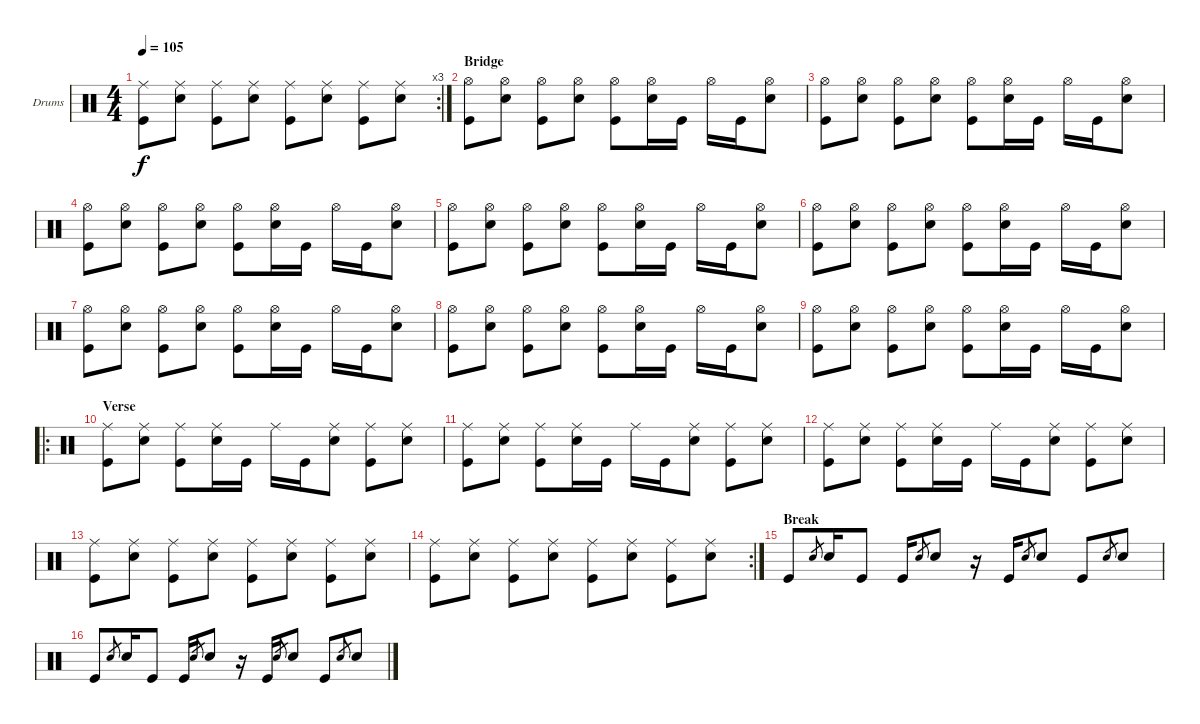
\bracketExtendMode groupsimilarinstruments
\firstSystemTrackNameOrientation horizontal
\otherSystemsTrackNameOrientation horizontal
\track ("Fabrizio" "Drums") {instrument percussion}
\staff {score}
\articulation defaults
\rc 3
\ts (4 4)
\tempo 105
\clef neutral
\ks c
("Ride (middle)" "Kick (hit)").8{dy f} ("Ride (middle)" "Snare (hit) 2").8 ("Ride (middle)" "Kick (hit)").8 ("Ride (middle)" "Snare (hit) 2").8 ("Ride (middle)" "Kick (hit)").8 ("Ride (middle)" "Snare (hit) 2").8 ("Ride (middle)" "Kick (hit)").8 ("Ride (middle)" "Snare (hit) 2").8 |
\section ("" "Bridge")
("Kick (hit)" "Hi-Hat (open)").8 ("Snare (hit) 2" "Hi-Hat (open)").8 ("Kick (hit)" "Hi-Hat (open)").8 ("Snare (hit) 2" "Hi-Hat (open)").8 ("Kick (hit)" "Hi-Hat (open)").8 ("Snare (hit) 2" "Hi-Hat (open)").16 "Kick (hit)".16 "Hi-Hat (open)".16 "Kick (hit)".16 ("Snare (hit) 2" "Hi-Hat (open)").8 |
("Kick (hit)" "Hi-Hat (open)").8 ("Snare (hit) 2" "Hi-Hat (open)").8 ("Kick (hit)" "Hi-Hat (open)").8 ("Snare (hit) 2" "Hi-Hat (open)").8 ("Kick (hit)" "Hi-Hat (open)").8 ("Snare (hit) 2" "Hi-Hat (open)").16 "Kick (hit)".16 "Hi-Hat (open)".16 "Kick (hit)".16 ("Snare (hit) 2" "Hi-Hat (open)").8 |
("Kick (hit)" "Hi-Hat (open)").8 ("Snare (hit) 2" "Hi-Hat (open)").8 ("Kick (hit)" "Hi-Hat (open)").8 ("Snare (hit) 2" "Hi-Hat (open)").8 ("Kick (hit)" "Hi-Hat (open)").8 ("Snare (hit) 2" "Hi-Hat (open)").16 "Kick (hit)".16 "Hi-Hat (open)".16 "Kick (hit)".16 ("Snare (hit) 2" "Hi-Hat (open)").8 |
("Kick (hit)" "Hi-Hat (open)").8 ("Snare (hit) 2" "Hi-Hat (open)").8 ("Kick (hit)" "Hi-Hat (open)").8 ("Snare (hit) 2" "Hi-Hat (open)").8 ("Kick (hit)" "Hi-Hat (open)").8 ("Snare (hit) 2" "Hi-Hat (open)").16 "Kick (hit)".16 "Hi-Hat (open)".16 "Kick (hit)".16 ("Snare (hit) 2" "Hi-Hat (open)").8 |
("Kick (hit)" "Hi-Hat (open)").8 ("Snare (hit) 2" "Hi-Hat (open)").8 ("Kick (hit)" "Hi-Hat (open)").8 ("Snare (hit) 2" "Hi-Hat (open)").8 ("Kick (hit)" "Hi-Hat (open)").8 ("Snare (hit) 2" "Hi-Hat (open)").16 "Kick (hit)".16 "Hi-Hat (open)".16 "Kick (hit)".16 ("Snare (hit) 2" "Hi-Hat (open)").8 |
("Kick (hit)" "Hi-Hat (open)").8 ("Snare (hit) 2" "Hi-Hat (open)").8 ("Kick (hit)" "Hi-Hat (open)").8 ("Snare (hit) 2" "Hi-Hat (open)").8 ("Kick (hit)" "Hi-Hat (open)").8 ("Snare (hit) 2" "Hi-Hat (open)").16 "Kick (hit)".16 "Hi-Hat (open)".16 "Kick (hit)".16 ("Snare (hit) 2" "Hi-Hat (open)").8 |
("Kick (hit)" "Hi-Hat (open)").8 ("Snare (hit) 2" "Hi-Hat (open)").8 ("Kick (hit)" "Hi-Hat (open)").8 ("Snare (hit) 2" "Hi-Hat (open)").8 ("Kick (hit)" "Hi-Hat (open)").8 ("Snare (hit) 2" "Hi-Hat (open)").16 "Kick (hit)".16 "Hi-Hat (open)".16 "Kick (hit)".16 ("Snare (hit) 2" "Hi-Hat (open)").8 |
("Kick (hit)" "Hi-Hat (open)").8 ("Snare (hit) 2" "Hi-Hat (open)").8 ("Kick (hit)" "Hi-Hat (open)").8 ("Snare (hit) 2" "Hi-Hat (open)").8 ("Kick (hit)" "Hi-Hat (open)").8 ("Snare (hit) 2" "Hi-Hat (open)").16 "Kick (hit)".16 "Hi-Hat (open)".16 "Kick (hit)".16 ("Snare (hit) 2" "Hi-Hat (open)").8 |
\ro
\section ("" "Verse")
("Ride (middle)" "Kick (hit)").8 ("Ride (middle)" "Snare (hit) 2").8 ("Ride (middle)" "Kick (hit)").8 ("Ride (middle)" "Snare (hit) 2").16 "Kick (hit)".16 "Ride (middle)".16 "Kick (hit)".16 ("Ride (middle)" "Snare (hit) 2").8 ("Ride (middle)" "Kick (hit)").8 ("Ride (middle)" "Snare (hit) 2").8 |
("Ride (middle)" "Kick (hit)").8 ("Ride (middle)" "Snare (hit) 2").8 ("Ride (middle)" "Kick (hit)").8 ("Ride (middle)" "Snare (hit) 2").16 "Kick (hit)".16 "Ride (middle)".16 "Kick (hit)".16 ("Ride (middle)" "Snare (hit) 2").8 ("Ride (middle)" "Kick (hit)").8 ("Ride (middle)" "Snare (hit) 2").8 |
("Ride (middle)" "Kick (hit)").8 ("Ride (middle)" "Snare (hit) 2").8 ("Ride (middle)" "Kick (hit)").8 ("Ride (middle)" "Snare (hit) 2").16 "Kick (hit)".16 "Ride (middle)".16 "Kick (hit)".16 ("Ride (middle)" "Snare (hit) 2").8 ("Ride (middle)" "Kick (hit)").8 ("Ride (middle)" "Snare (hit) 2").8 |
("Ride (middle)" "Kick (hit)").8 ("Ride (middle)" "Snare (hit) 2").8 ("Ride (middle)" "Kick (hit)").8 ("Ride (middle)" "Snare (hit) 2").8 ("Ride (middle)" "Kick (hit)").8 ("Ride (middle)" "Snare (hit) 2").8 ("Ride (middle)" "Kick (hit)").8 ("Ride (middle)" "Snare (hit) 2").8 |
\rc 2
("Ride (middle)" "Kick (hit)").8 ("Ride (middle)" "Snare (hit) 2").8 ("Ride (middle)" "Kick (hit)").8 ("Ride (middle)" "Snare (hit) 2").8 ("Ride (middle)" "Kick (hit)").8 ("Ride (middle)" "Snare (hit) 2").8 ("Ride (middle)" "Kick (hit)").8 ("Ride (middle)" "Snare (hit) 2").8 |
\section ("" "Break")
"Kick (hit)".8 "Snare (hit) 2".8{gr} "Snare (hit) 2".16 "Kick (hit)".8 "Kick (hit)".16 "Snare (hit) 2".8{gr} "Snare (hit) 2".8 r.16 "Kick (hit)".16 "Snare (hit) 2".8{gr} "Snare (hit) 2".8 "Kick (hit)".8 "Snare (hit) 2".8{gr} "Snare (hit) 2".8 |
"Kick (hit)".8 "Snare (hit) 2".8{gr} "Snare (hit) 2".16 "Kick (hit)".8 "Kick (hit)".16 "Snare (hit) 2".8{gr} "Snare (hit) 2".8 r.16 "Kick (hit)".16 "Snare (hit) 2".8{gr} "Snare (hit) 2".8 "Kick (hit)".8 "Snare (hit) 2".8{gr} "Snare (hit) 2".8
